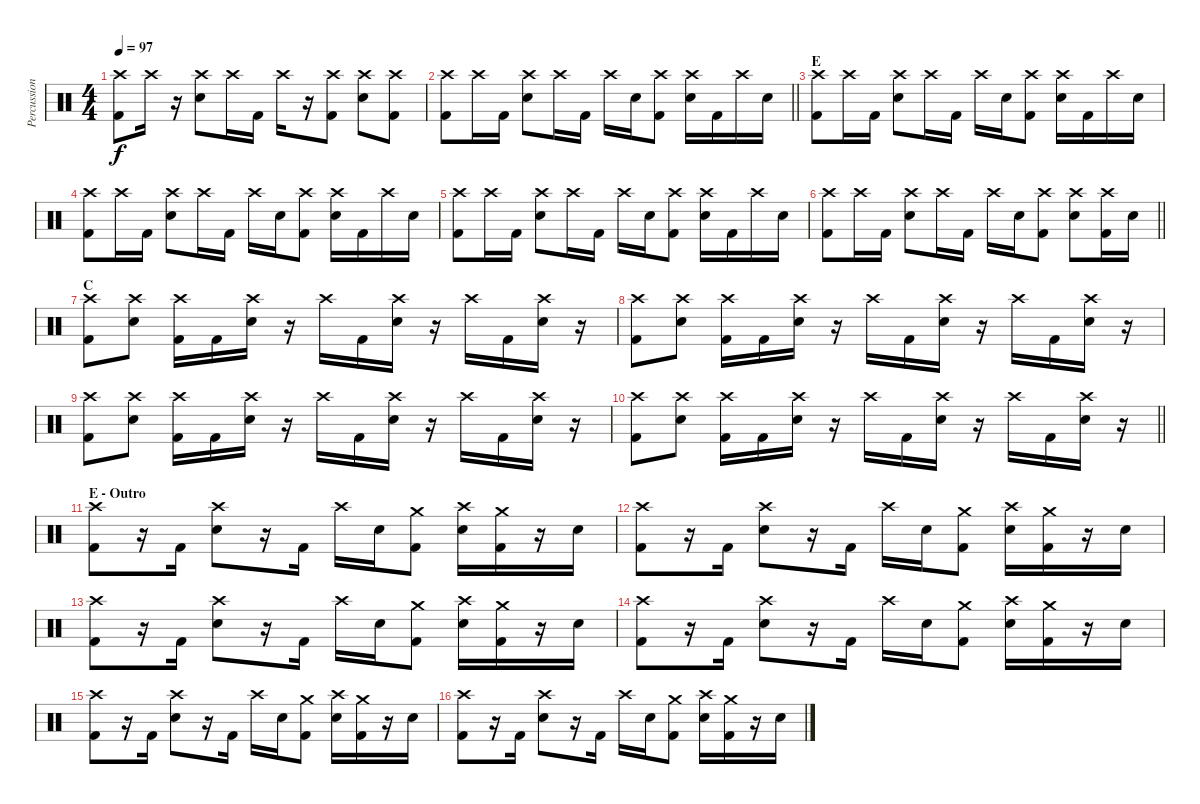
\track ("Percussions" "Percussion") {instrument percussion}
\staff {score}
\articulation defaults
\ts (4 4)
\tempo 97
\clef neutral
\ks c
("Crash high (hit)" "Kick (hit) 2").8{dy f} "Crash high (hit)".16 r.16 ("Crash high (hit)" "Snare (hit) 2").8 "Crash high (hit)".16 "Kick (hit) 2".16 "Crash high (hit)".16 r.16 ("Crash high (hit)" "Kick (hit) 2").8 ("Crash high (hit)" "Snare (hit) 2").8 ("Crash high (hit)" "Kick (hit) 2").8 |
\barLineRight lightlight
("Crash high (hit)" "Kick (hit) 2").8 "Crash high (hit)".16 "Kick (hit) 2".16 ("Crash high (hit)" "Snare (hit) 2").8 "Crash high (hit)".16 "Kick (hit) 2".16 "Crash high (hit)".16 "Snare (hit) 2".16 ("Crash high (hit)" "Kick (hit) 2").8 ("Crash high (hit)" "Snare (hit) 2").16 "Kick (hit) 2".16 "Crash high (hit)".16 "Snare (hit) 2".16 |
\section ("" "E")
("Crash high (hit)" "Kick (hit) 2").8 "Crash high (hit)".16 "Kick (hit) 2".16 ("Crash high (hit)" "Snare (hit) 2").8 "Crash high (hit)".16 "Kick (hit) 2".16 "Crash high (hit)".16 "Snare (hit) 2".16 ("Crash high (hit)" "Kick (hit) 2").8 ("Crash high (hit)" "Snare (hit) 2").16 "Kick (hit) 2".16 "Crash high (hit)".16 "Snare (hit) 2".16 |
("Crash high (hit)" "Kick (hit) 2").8 "Crash high (hit)".16 "Kick (hit) 2".16 ("Crash high (hit)" "Snare (hit) 2").8 "Crash high (hit)".16 "Kick (hit) 2".16 "Crash high (hit)".16 "Snare (hit) 2".16 ("Crash high (hit)" "Kick (hit) 2").8 ("Crash high (hit)" "Snare (hit) 2").16 "Kick (hit) 2".16 "Crash high (hit)".16 "Snare (hit) 2".16 |
("Crash high (hit)" "Kick (hit) 2").8 "Crash high (hit)".16 "Kick (hit) 2".16 ("Crash high (hit)" "Snare (hit) 2").8 "Crash high (hit)".16 "Kick (hit) 2".16 "Crash high (hit)".16 "Snare (hit) 2".16 ("Crash high (hit)" "Kick (hit) 2").8 ("Crash high (hit)" "Snare (hit) 2").16 "Kick (hit) 2".16 "Crash high (hit)".16 "Snare (hit) 2".16 |
\barLineRight lightlight
("Crash high (hit)" "Kick (hit) 2").8 "Crash high (hit)".16 "Kick (hit) 2".16 ("Crash high (hit)" "Snare (hit) 2").8 "Crash high (hit)".16 "Kick (hit) 2".16 "Crash high (hit)".16 "Snare (hit) 2".16 ("Crash high (hit)" "Kick (hit) 2").8 ("Crash high (hit)" "Snare (hit) 2").8 ("Crash high (hit)" "Kick (hit) 2").16 "Snare (hit) 2".16 |
\section ("" "C")
("Crash high (hit)" "Kick (hit) 2").8 ("Crash high (hit)" "Snare (hit) 2").8 ("Crash high (hit)" "Kick (hit) 2").16 "Kick (hit) 2".16 ("Crash high (hit)" "Snare (hit) 2").16 r.16 "Crash high (hit)".16 "Kick (hit) 2".16 ("Crash high (hit)" "Snare (hit) 2").16 r.16 "Crash high (hit)".16 "Kick (hit) 2".16 ("Crash high (hit)" "Snare (hit) 2").16 r.16 |
("Crash high (hit)" "Kick (hit) 2").8 ("Crash high (hit)" "Snare (hit) 2").8 ("Crash high (hit)" "Kick (hit) 2").16 "Kick (hit) 2".16 ("Crash high (hit)" "Snare (hit) 2").16 r.16 "Crash high (hit)".16 "Kick (hit) 2".16 ("Crash high (hit)" "Snare (hit) 2").16 r.16 "Crash high (hit)".16 "Kick (hit) 2".16 ("Crash high (hit)" "Snare (hit) 2").16 r.16 |
("Crash high (hit)" "Kick (hit) 2").8 ("Crash high (hit)" "Snare (hit) 2").8 ("Crash high (hit)" "Kick (hit) 2").16 "Kick (hit) 2".16 ("Crash high (hit)" "Snare (hit) 2").16 r.16 "Crash high (hit)".16 "Kick (hit) 2".16 ("Crash high (hit)" "Snare (hit) 2").16 r.16 "Crash high (hit)".16 "Kick (hit) 2".16 ("Crash high (hit)" "Snare (hit) 2").16 r.16 |
\barLineRight lightlight
("Crash high (hit)" "Kick (hit) 2").8 ("Crash high (hit)" "Snare (hit) 2").8 ("Crash high (hit)" "Kick (hit) 2").16 "Kick (hit) 2".16 ("Crash high (hit)" "Snare (hit) 2").16 r.16 "Crash high (hit)".16 "Kick (hit) 2".16 ("Crash high (hit)" "Snare (hit) 2").16 r.16 "Crash high (hit)".16 "Kick (hit) 2".16 ("Crash high (hit)" "Snare (hit) 2").16 r.16 |
\section ("" "E - Outro")
("Crash high (hit)" "Kick (hit) 2").8 r.16 "Kick (hit) 2".16 ("Crash high (hit)" "Snare (hit) 2").8 r.16 "Kick (hit) 2".16 "Crash high (hit)".16 "Snare (hit) 2".16 ("Crash medium (hit)" "Kick (hit) 2").8 ("Crash high (hit)" "Snare (hit) 2").16 ("Crash medium (hit)" "Kick (hit) 2").16 r.16 "Snare (hit) 2".16 |
("Crash high (hit)" "Kick (hit) 2").8 r.16 "Kick (hit) 2".16 ("Crash high (hit)" "Snare (hit) 2").8 r.16 "Kick (hit) 2".16 "Crash high (hit)".16 "Snare (hit) 2".16 ("Crash medium (hit)" "Kick (hit) 2").8 ("Crash high (hit)" "Snare (hit) 2").16 ("Crash medium (hit)" "Kick (hit) 2").16 r.16 "Snare (hit) 2".16 |
("Crash high (hit)" "Kick (hit) 2").8 r.16 "Kick (hit) 2".16 ("Crash high (hit)" "Snare (hit) 2").8 r.16 "Kick (hit) 2".16 "Crash high (hit)".16 "Snare (hit) 2".16 ("Crash medium (hit)" "Kick (hit) 2").8 ("Crash high (hit)" "Snare (hit) 2").16 ("Crash medium (hit)" "Kick (hit) 2").16 r.16 "Snare (hit) 2".16 |
("Crash high (hit)" "Kick (hit) 2").8 r.16 "Kick (hit) 2".16 ("Crash high (hit)" "Snare (hit) 2").8 r.16 "Kick (hit) 2".16 "Crash high (hit)".16 "Snare (hit) 2".16 ("Crash medium (hit)" "Kick (hit) 2").8 ("Crash high (hit)" "Snare (hit) 2").16 ("Crash medium (hit)" "Kick (hit) 2").16 r.16 "Snare (hit) 2".16 |
("Crash high (hit)" "Kick (hit) 2").8 r.16 "Kick (hit) 2".16 ("Crash high (hit)" "Snare (hit) 2").8 r.16 "Kick (hit) 2".16 "Crash high (hit)".16 "Snare (hit) 2".16 ("Crash medium (hit)" "Kick (hit) 2").8 ("Crash high (hit)" "Snare (hit) 2").16 ("Crash medium (hit)" "Kick (hit) 2").16 r.16 "Snare (hit) 2".16 |
("Crash high (hit)" "Kick (hit) 2").8 r.16 "Kick (hit) 2".16 ("Crash high (hit)" "Snare (hit) 2").8 r.16 "Kick (hit) 2".16 "Crash high (hit)".16 "Snare (hit) 2".16 ("Crash medium (hit)" "Kick (hit) 2").8 ("Crash high (hit)" "Snare (hit) 2").16 ("Crash medium (hit)" "Kick (hit) 2").16 r.16 "Snare (hit) 2".16
